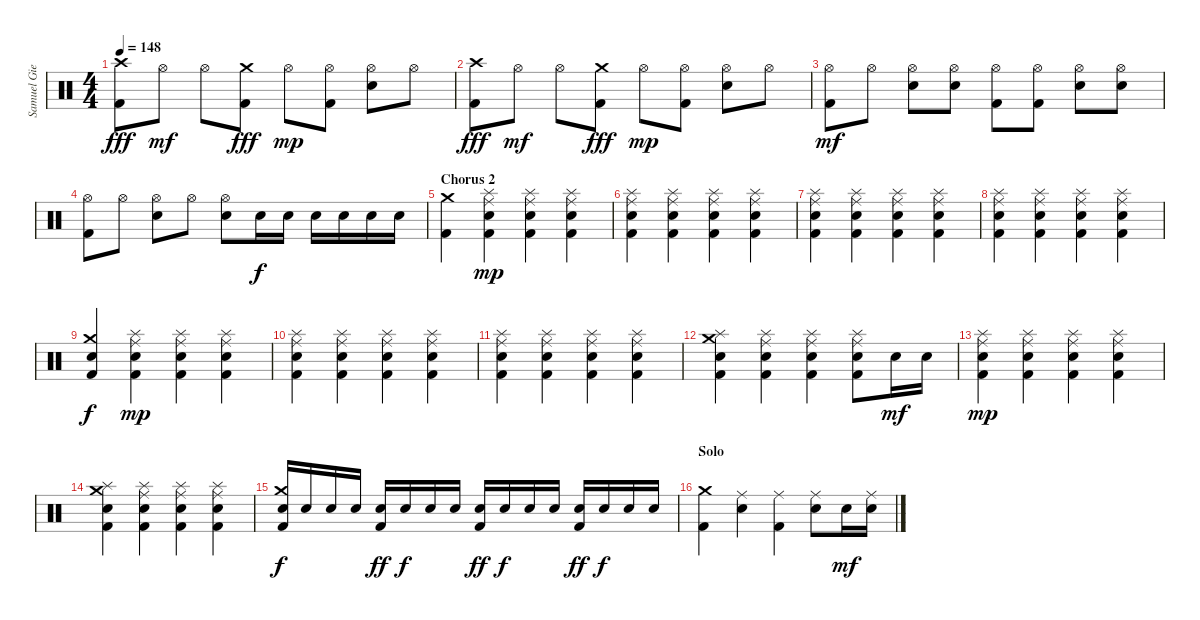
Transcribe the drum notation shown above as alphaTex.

\track ("Samuel Giers - Drum" "Samuel Gie") {instrument percussion}
\staff {score}
\articulation defaults
\ts (4 4)
\tempo 148
\clef neutral
\ks c
("Crash high (hit)" "Kick (hit) 2").8{dy fff} "Hi-Hat (open)".8{dy mf} "Hi-Hat (open)".8 ("Crash medium (hit)" "Kick (hit) 2").8{dy fff} "Hi-Hat (open)".8{dy mp} ("Hi-Hat (open)" "Kick (hit) 2").8 ("Hi-Hat (open)" "Snare (hit) 2").8 "Hi-Hat (open)".8 |
("Crash high (hit)" "Kick (hit) 2").8{dy fff} "Hi-Hat (open)".8{dy mf} "Hi-Hat (open)".8 ("Crash medium (hit)" "Kick (hit) 2").8{dy fff} "Hi-Hat (open)".8{dy mp} ("Hi-Hat (open)" "Kick (hit) 2").8 ("Hi-Hat (open)" "Snare (hit) 2").8 "Hi-Hat (open)".8 |
("Hi-Hat (open)" "Kick (hit) 2").8{dy mf} "Hi-Hat (open)".8 ("Hi-Hat (open)" "Snare (hit) 2").8 ("Hi-Hat (open)" "Snare (hit) 2").8 ("Hi-Hat (open)" "Kick (hit) 2").8 ("Hi-Hat (open)" "Kick (hit) 2").8 ("Hi-Hat (open)" "Snare (hit) 2").8 ("Hi-Hat (open)" "Snare (hit) 2").8 |
("Hi-Hat (open)" "Kick (hit) 2").8 "Hi-Hat (open)".8 ("Hi-Hat (open)" "Snare (hit) 2").8 "Hi-Hat (open)".8 ("Hi-Hat (open)" "Snare (hit) 2").8 "Snare (hit) 2".16{dy f} "Snare (hit) 2".16 "Snare (hit) 2".16 "Snare (hit) 2".16 "Snare (hit) 2".16 "Snare (hit) 2".16 |
\section ("" "Chorus 2")
("Crash medium (hit)" "Kick (hit) 2").4 ("Ride (middle)" "Splash (hit)" "Snare (hit) 2" "Kick (hit) 2").4{dy mp} ("Ride (middle)" "Splash (hit)" "Snare (hit) 2" "Kick (hit) 2").4 ("Ride (middle)" "Splash (hit)" "Snare (hit) 2" "Kick (hit) 2").4 |
("Ride (middle)" "Splash (hit)" "Snare (hit) 2" "Kick (hit) 2").4 ("Ride (middle)" "Splash (hit)" "Snare (hit) 2" "Kick (hit) 2").4 ("Ride (middle)" "Splash (hit)" "Snare (hit) 2" "Kick (hit) 2").4 ("Ride (middle)" "Splash (hit)" "Snare (hit) 2" "Kick (hit) 2").4 |
("Ride (middle)" "Splash (hit)" "Snare (hit) 2" "Kick (hit) 2").4 ("Ride (middle)" "Splash (hit)" "Snare (hit) 2" "Kick (hit) 2").4 ("Ride (middle)" "Splash (hit)" "Snare (hit) 2" "Kick (hit) 2").4 ("Ride (middle)" "Splash (hit)" "Snare (hit) 2" "Kick (hit) 2").4 |
("Ride (middle)" "Splash (hit)" "Snare (hit) 2" "Kick (hit) 2").4 ("Ride (middle)" "Splash (hit)" "Snare (hit) 2" "Kick (hit) 2").4 ("Ride (middle)" "Splash (hit)" "Snare (hit) 2" "Kick (hit) 2").4 ("Ride (middle)" "Splash (hit)" "Snare (hit) 2" "Kick (hit) 2").4 |
("Crash medium (hit)" "Snare (hit) 2" "Kick (hit) 2").4{dy f} ("Ride (middle)" "Splash (hit)" "Snare (hit) 2" "Kick (hit) 2").4{dy mp} ("Ride (middle)" "Splash (hit)" "Snare (hit) 2" "Kick (hit) 2").4 ("Ride (middle)" "Splash (hit)" "Snare (hit) 2" "Kick (hit) 2").4 |
("Ride (middle)" "Splash (hit)" "Snare (hit) 2" "Kick (hit) 2").4 ("Ride (middle)" "Splash (hit)" "Snare (hit) 2" "Kick (hit) 2").4 ("Ride (middle)" "Splash (hit)" "Snare (hit) 2" "Kick (hit) 2").4 ("Ride (middle)" "Splash (hit)" "Snare (hit) 2" "Kick (hit) 2").4 |
("Ride (middle)" "Splash (hit)" "Snare (hit) 2" "Kick (hit) 2").4 ("Ride (middle)" "Splash (hit)" "Snare (hit) 2" "Kick (hit) 2").4 ("Ride (middle)" "Splash (hit)" "Snare (hit) 2" "Kick (hit) 2").4 ("Ride (middle)" "Splash (hit)" "Snare (hit) 2" "Kick (hit) 2").4 |
("Crash medium (hit)" "Splash (hit)" "Snare (hit) 2" "Kick (hit) 2").4 ("Ride (middle)" "Splash (hit)" "Snare (hit) 2" "Kick (hit) 2").4 ("Ride (middle)" "Splash (hit)" "Snare (hit) 2" "Kick (hit) 2").4 ("Ride (middle)" "Splash (hit)" "Snare (hit) 2" "Kick (hit) 2").8 "Snare (hit) 2".16{dy mf} "Snare (hit) 2".16 |
("Ride (middle)" "Splash (hit)" "Snare (hit) 2" "Kick (hit) 2").4{dy mp} ("Ride (middle)" "Splash (hit)" "Snare (hit) 2" "Kick (hit) 2").4 ("Ride (middle)" "Splash (hit)" "Snare (hit) 2" "Kick (hit) 2").4 ("Ride (middle)" "Splash (hit)" "Snare (hit) 2" "Kick (hit) 2").4 |
("Crash medium (hit)" "Splash (hit)" "Snare (hit) 2" "Kick (hit) 2").4 ("Ride (middle)" "Splash (hit)" "Snare (hit) 2" "Kick (hit) 2").4 ("Ride (middle)" "Splash (hit)" "Snare (hit) 2" "Kick (hit) 2").4 ("Ride (middle)" "Splash (hit)" "Snare (hit) 2" "Kick (hit) 2").4 |
("Crash medium (hit)" "Snare (hit) 2" "Kick (hit) 2").16{dy f} "Snare (hit) 2".16 "Snare (hit) 2".16 "Snare (hit) 2".16 ("Snare (hit) 2" "Kick (hit) 2").16{dy ff} "Snare (hit) 2".16{dy f} "Snare (hit) 2".16 "Snare (hit) 2".16 ("Snare (hit) 2" "Kick (hit) 2").16{dy ff} "Snare (hit) 2".16{dy f} "Snare (hit) 2".16 "Snare (hit) 2".16 ("Snare (hit) 2" "Kick (hit) 2").16{dy ff} "Snare (hit) 2".16{dy f} "Snare (hit) 2".16 "Snare (hit) 2".16 |
\section ("" "Solo")
("Crash medium (hit)" "Kick (hit) 2").4 ("Ride (middle)" "Snare (hit) 2").4 ("Ride (middle)" "Kick (hit) 2").4 ("Ride (middle)" "Snare (hit) 2").8 "Snare (hit) 2".16{dy mf} ("Ride (middle)" "Snare (hit) 2").16
